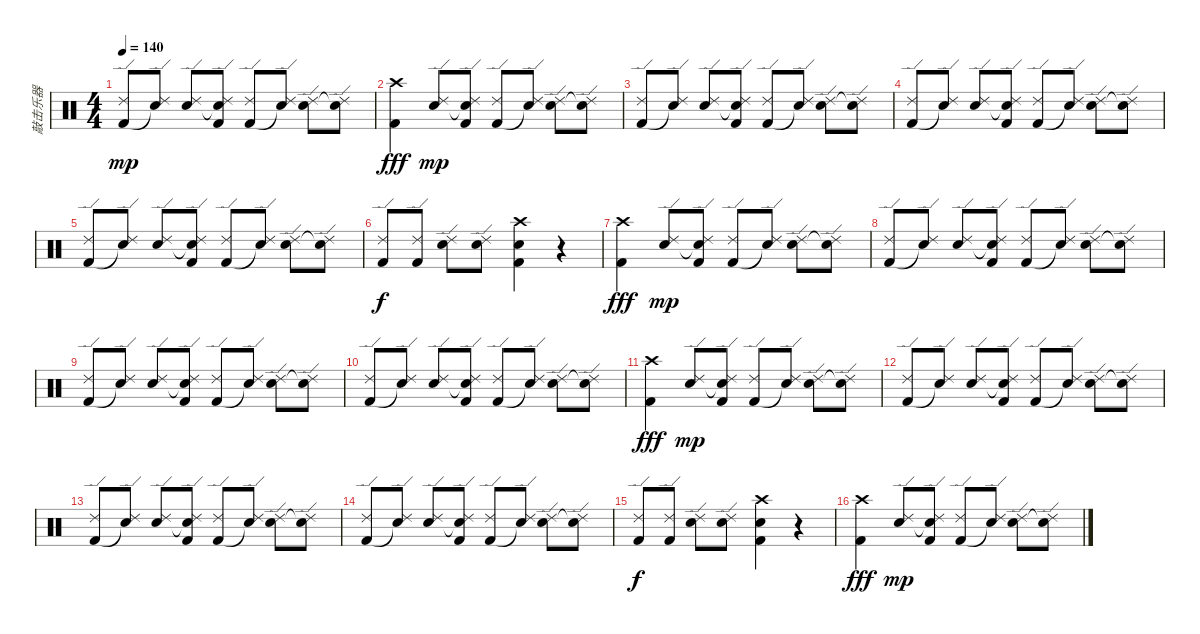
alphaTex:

\track ("敲击乐器" "敲击乐器") {instrument percussion}
\staff {score}
\articulation defaults
\ts (4 4)
\tempo 140
\clef neutral
\ks c
("Kick (hit) 2" "Ride (edge) 2").8{dy mp} ("Snare (hit)"{t} "Ride (edge) 2").8 ("Electric Snare (hit)" "Ride (edge) 2").8 ("Snare (hit)"{t} "Kick (hit) 2" "Ride (edge) 2").8 ("Kick (hit) 2" "Ride (edge) 2").8 ("Snare (hit)"{t} "Ride (edge) 2").8 ("Electric Snare (hit)" "Ride (edge) 2").8 ("Snare (hit)"{t} "Ride (edge) 2").8 |
("Kick (hit) 2" "Crash high (hit)").4{dy fff} ("Electric Snare (hit)" "Ride (edge) 2").8{dy mp} ("Snare (hit)"{t} "Kick (hit) 2" "Ride (edge) 2").8 ("Kick (hit) 2" "Ride (edge) 2").8 ("Snare (hit)"{t} "Ride (edge) 2").8 ("Electric Snare (hit)" "Ride (edge) 2").8 ("Snare (hit)"{t} "Ride (edge) 2").8 |
("Kick (hit) 2" "Ride (edge) 2").8 ("Snare (hit)"{t} "Ride (edge) 2").8 ("Electric Snare (hit)" "Ride (edge) 2").8 ("Snare (hit)"{t} "Kick (hit) 2" "Ride (edge) 2").8 ("Kick (hit) 2" "Ride (edge) 2").8 ("Snare (hit)"{t} "Ride (edge) 2").8 ("Electric Snare (hit)" "Ride (edge) 2").8 ("Snare (hit)"{t} "Ride (edge) 2").8 |
("Kick (hit) 2" "Ride (edge) 2").8 ("Snare (hit)"{t} "Ride (edge) 2").8 ("Electric Snare (hit)" "Ride (edge) 2").8 ("Snare (hit)"{t} "Kick (hit) 2" "Ride (edge) 2").8 ("Kick (hit) 2" "Ride (edge) 2").8 ("Snare (hit)"{t} "Ride (edge) 2").8 ("Electric Snare (hit)" "Ride (edge) 2").8 ("Snare (hit)"{t} "Ride (edge) 2").8 |
("Kick (hit) 2" "Ride (edge) 2").8 ("Snare (hit)"{t} "Ride (edge) 2").8 ("Electric Snare (hit)" "Ride (edge) 2").8 ("Snare (hit)"{t} "Kick (hit) 2" "Ride (edge) 2").8 ("Kick (hit) 2" "Ride (edge) 2").8 ("Snare (hit)"{t} "Ride (edge) 2").8 ("Electric Snare (hit)" "Ride (edge) 2").8 ("Snare (hit)"{t} "Ride (edge) 2").8 |
("Kick (hit) 2" "Ride (edge) 2").8{dy f} ("Kick (hit) 2" "Ride (edge) 2").8 ("Snare (hit) 2" "Ride (edge) 2").8 ("Snare (hit) 2" "Ride (edge) 2").8 ("Crash high (hit)" "Snare (hit) 2" "Kick (hit) 2").4 r.4 |
("Kick (hit) 2" "Crash high (hit)").4{dy fff} ("Electric Snare (hit)" "Ride (edge) 2").8{dy mp} ("Snare (hit)"{t} "Kick (hit) 2" "Ride (edge) 2").8 ("Kick (hit) 2" "Ride (edge) 2").8 ("Snare (hit)"{t} "Ride (edge) 2").8 ("Electric Snare (hit)" "Ride (edge) 2").8 ("Snare (hit)"{t} "Ride (edge) 2").8 |
("Kick (hit) 2" "Ride (edge) 2").8 ("Snare (hit)"{t} "Ride (edge) 2").8 ("Electric Snare (hit)" "Ride (edge) 2").8 ("Snare (hit)"{t} "Kick (hit) 2" "Ride (edge) 2").8 ("Kick (hit) 2" "Ride (edge) 2").8 ("Snare (hit)"{t} "Ride (edge) 2").8 ("Electric Snare (hit)" "Ride (edge) 2").8 ("Snare (hit)"{t} "Ride (edge) 2").8 |
("Kick (hit) 2" "Ride (edge) 2").8 ("Snare (hit)"{t} "Ride (edge) 2").8 ("Electric Snare (hit)" "Ride (edge) 2").8 ("Snare (hit)"{t} "Kick (hit) 2" "Ride (edge) 2").8 ("Kick (hit) 2" "Ride (edge) 2").8 ("Snare (hit)"{t} "Ride (edge) 2").8 ("Electric Snare (hit)" "Ride (edge) 2").8 ("Snare (hit)"{t} "Ride (edge) 2").8 |
("Kick (hit) 2" "Ride (edge) 2").8 ("Snare (hit)"{t} "Ride (edge) 2").8 ("Electric Snare (hit)" "Ride (edge) 2").8 ("Snare (hit)"{t} "Kick (hit) 2" "Ride (edge) 2").8 ("Kick (hit) 2" "Ride (edge) 2").8 ("Snare (hit)"{t} "Ride (edge) 2").8 ("Electric Snare (hit)" "Ride (edge) 2").8 ("Snare (hit)"{t} "Ride (edge) 2").8 |
("Kick (hit) 2" "Crash high (hit)").4{dy fff} ("Electric Snare (hit)" "Ride (edge) 2").8{dy mp} ("Snare (hit)"{t} "Kick (hit) 2" "Ride (edge) 2").8 ("Kick (hit) 2" "Ride (edge) 2").8 ("Snare (hit)"{t} "Ride (edge) 2").8 ("Electric Snare (hit)" "Ride (edge) 2").8 ("Snare (hit)"{t} "Ride (edge) 2").8 |
("Kick (hit) 2" "Ride (edge) 2").8 ("Snare (hit)"{t} "Ride (edge) 2").8 ("Electric Snare (hit)" "Ride (edge) 2").8 ("Snare (hit)"{t} "Kick (hit) 2" "Ride (edge) 2").8 ("Kick (hit) 2" "Ride (edge) 2").8 ("Snare (hit)"{t} "Ride (edge) 2").8 ("Electric Snare (hit)" "Ride (edge) 2").8 ("Snare (hit)"{t} "Ride (edge) 2").8 |
("Kick (hit) 2" "Ride (edge) 2").8 ("Snare (hit)"{t} "Ride (edge) 2").8 ("Electric Snare (hit)" "Ride (edge) 2").8 ("Snare (hit)"{t} "Kick (hit) 2" "Ride (edge) 2").8 ("Kick (hit) 2" "Ride (edge) 2").8 ("Snare (hit)"{t} "Ride (edge) 2").8 ("Electric Snare (hit)" "Ride (edge) 2").8 ("Snare (hit)"{t} "Ride (edge) 2").8 |
("Kick (hit) 2" "Ride (edge) 2").8 ("Snare (hit)"{t} "Ride (edge) 2").8 ("Electric Snare (hit)" "Ride (edge) 2").8 ("Snare (hit)"{t} "Kick (hit) 2" "Ride (edge) 2").8 ("Kick (hit) 2" "Ride (edge) 2").8 ("Snare (hit)"{t} "Ride (edge) 2").8 ("Electric Snare (hit)" "Ride (edge) 2").8 ("Snare (hit)"{t} "Ride (edge) 2").8 |
("Kick (hit) 2" "Ride (edge) 2").8{dy f} ("Kick (hit) 2" "Ride (edge) 2").8 ("Snare (hit) 2" "Ride (edge) 2").8 ("Snare (hit) 2" "Ride (edge) 2").8 ("Crash high (hit)" "Snare (hit) 2" "Kick (hit) 2").4 r.4 |
("Kick (hit) 2" "Crash high (hit)").4{dy fff} ("Electric Snare (hit)" "Ride (edge) 2").8{dy mp} ("Snare (hit)"{t} "Kick (hit) 2" "Ride (edge) 2").8 ("Kick (hit) 2" "Ride (edge) 2").8 ("Snare (hit)"{t} "Ride (edge) 2").8 ("Electric Snare (hit)" "Ride (edge) 2").8 ("Snare (hit)"{t} "Ride (edge) 2").8
